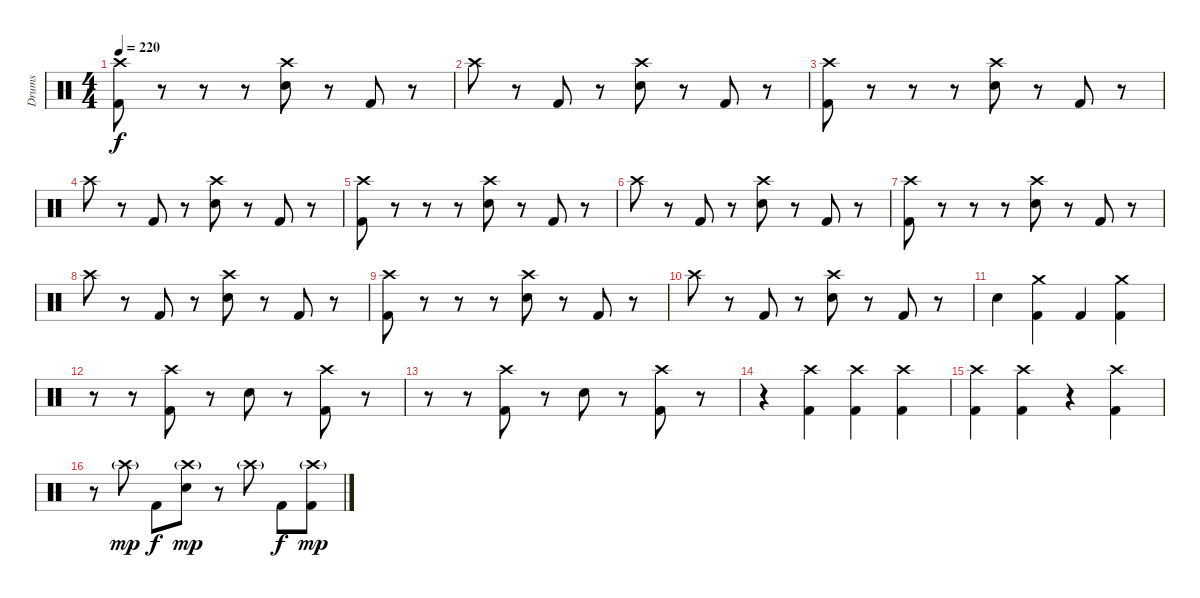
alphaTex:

\track ("Drums" "Drums") {instrument percussion}
\staff {score}
\articulation defaults
\ts (4 4)
\tempo 220
\clef neutral
\ks c
("Crash high (hit)" "Kick (hit) 2").8{dy f} r.8 r.8 r.8 ("Crash high (hit)" "Electric Snare (hit)").8 r.8 "Kick (hit) 2".8 r.8 |
"Crash high (hit)".8 r.8 "Kick (hit) 2".8 r.8 ("Crash high (hit)" "Electric Snare (hit)").8 r.8 "Kick (hit) 2".8 r.8 |
("Crash high (hit)" "Kick (hit) 2").8 r.8 r.8 r.8 ("Crash high (hit)" "Electric Snare (hit)").8 r.8 "Kick (hit) 2".8 r.8 |
"Crash high (hit)".8 r.8 "Kick (hit) 2".8 r.8 ("Crash high (hit)" "Electric Snare (hit)").8 r.8 "Kick (hit) 2".8 r.8 |
("Crash high (hit)" "Kick (hit) 2").8 r.8 r.8 r.8 ("Crash high (hit)" "Electric Snare (hit)").8 r.8 "Kick (hit) 2".8 r.8 |
"Crash high (hit)".8 r.8 "Kick (hit) 2".8 r.8 ("Crash high (hit)" "Electric Snare (hit)").8 r.8 "Kick (hit) 2".8 r.8 |
("Crash high (hit)" "Kick (hit) 2").8 r.8 r.8 r.8 ("Crash high (hit)" "Electric Snare (hit)").8 r.8 "Kick (hit) 2".8 r.8 |
"Crash high (hit)".8 r.8 "Kick (hit) 2".8 r.8 ("Crash high (hit)" "Electric Snare (hit)").8 r.8 "Kick (hit) 2".8 r.8 |
("Crash high (hit)" "Kick (hit) 2").8 r.8 r.8 r.8 ("Crash high (hit)" "Electric Snare (hit)").8 r.8 "Kick (hit) 2".8 r.8 |
"Crash high (hit)".8 r.8 "Kick (hit) 2".8 r.8 ("Crash high (hit)" "Electric Snare (hit)").8 r.8 "Kick (hit) 2".8 r.8 |
"Electric Snare (hit)".4 ("Crash medium (hit)" "Kick (hit) 2").4 "Kick (hit) 2".4 ("Crash medium (hit)" "Kick (hit) 2").4 |
r.8 r.8 ("Crash high (hit)" "Kick (hit) 2").8 r.8 "Electric Snare (hit)".8 r.8 ("Crash high (hit)" "Kick (hit) 2").8 r.8 |
r.8 r.8 ("Crash high (hit)" "Kick (hit) 2").8 r.8 "Electric Snare (hit)".8 r.8 ("Crash high (hit)" "Kick (hit) 2").8 r.8 |
r.4 ("Crash high (hit)" "Kick (hit) 2").4 ("Crash high (hit)" "Kick (hit) 2").4 ("Crash high (hit)" "Kick (hit) 2").4 |
("Crash high (hit)" "Kick (hit) 2").4 ("Crash high (hit)" "Kick (hit) 2").4 r.4 ("Kick (hit) 2" "Crash high (hit)").4 |
r.8 "Crash high (hit)"{g}.8{dy mp} "Kick (hit) 2".8{dy f} ("Crash high (hit)"{g} "Electric Snare (hit)").8{dy mp} r.8 "Crash high (hit)"{g}.8 "Kick (hit) 2".8{dy f} ("Crash high (hit)"{g} "Kick (hit) 2").8{dy mp}
